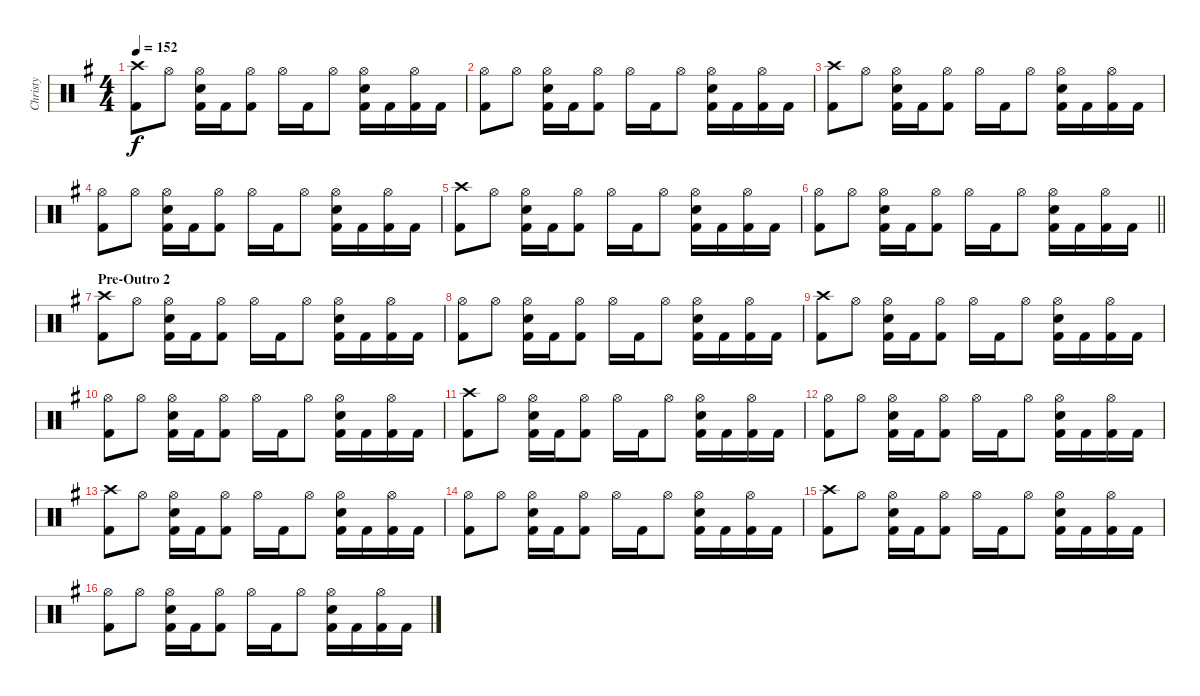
\track ("Christy" "Christy") {instrument percussion}
\staff {score}
\articulation defaults
\ts (4 4)
\tempo 152
\clef neutral
\ks g
("Crash high (hit)" "Kick (hit) 2").8{dy f} "Hi-Hat (open)".8 ("Hi-Hat (open)" "Snare (hit) 2" "Kick (hit) 2").16 "Kick (hit) 2".16 ("Hi-Hat (open)" "Kick (hit) 2").8 "Hi-Hat (open)".16 "Kick (hit) 2".16 "Hi-Hat (open)".8 ("Hi-Hat (open)" "Snare (hit) 2" "Kick (hit) 2").16 "Kick (hit) 2".16 ("Hi-Hat (open)" "Kick (hit) 2").16 "Kick (hit) 2".16 |
("Hi-Hat (open)" "Kick (hit) 2").8 "Hi-Hat (open)".8 ("Hi-Hat (open)" "Snare (hit) 2" "Kick (hit) 2").16 "Kick (hit) 2".16 ("Hi-Hat (open)" "Kick (hit) 2").8 "Hi-Hat (open)".16 "Kick (hit) 2".16 "Hi-Hat (open)".8 ("Hi-Hat (open)" "Snare (hit) 2" "Kick (hit) 2").16 "Kick (hit) 2".16 ("Hi-Hat (open)" "Kick (hit) 2").16 "Kick (hit) 2".16 |
("Crash high (hit)" "Kick (hit) 2").8 "Hi-Hat (open)".8 ("Hi-Hat (open)" "Snare (hit) 2" "Kick (hit) 2").16 "Kick (hit) 2".16 ("Hi-Hat (open)" "Kick (hit) 2").8 "Hi-Hat (open)".16 "Kick (hit) 2".16 "Hi-Hat (open)".8 ("Hi-Hat (open)" "Snare (hit) 2" "Kick (hit) 2").16 "Kick (hit) 2".16 ("Hi-Hat (open)" "Kick (hit) 2").16 "Kick (hit) 2".16 |
("Hi-Hat (open)" "Kick (hit) 2").8 "Hi-Hat (open)".8 ("Hi-Hat (open)" "Snare (hit) 2" "Kick (hit) 2").16 "Kick (hit) 2".16 ("Hi-Hat (open)" "Kick (hit) 2").8 "Hi-Hat (open)".16 "Kick (hit) 2".16 "Hi-Hat (open)".8 ("Hi-Hat (open)" "Snare (hit) 2" "Kick (hit) 2").16 "Kick (hit) 2".16 ("Hi-Hat (open)" "Kick (hit) 2").16 "Kick (hit) 2".16 |
("Crash high (hit)" "Kick (hit) 2").8 "Hi-Hat (open)".8 ("Hi-Hat (open)" "Snare (hit) 2" "Kick (hit) 2").16 "Kick (hit) 2".16 ("Hi-Hat (open)" "Kick (hit) 2").8 "Hi-Hat (open)".16 "Kick (hit) 2".16 "Hi-Hat (open)".8 ("Hi-Hat (open)" "Snare (hit) 2" "Kick (hit) 2").16 "Kick (hit) 2".16 ("Hi-Hat (open)" "Kick (hit) 2").16 "Kick (hit) 2".16 |
\barLineRight lightlight
("Hi-Hat (open)" "Kick (hit) 2").8 "Hi-Hat (open)".8 ("Hi-Hat (open)" "Snare (hit) 2" "Kick (hit) 2").16 "Kick (hit) 2".16 ("Hi-Hat (open)" "Kick (hit) 2").8 "Hi-Hat (open)".16 "Kick (hit) 2".16 "Hi-Hat (open)".8 ("Hi-Hat (open)" "Snare (hit) 2" "Kick (hit) 2").16 "Kick (hit) 2".16 ("Hi-Hat (open)" "Kick (hit) 2").16 "Kick (hit) 2".16 |
\section ("" "Pre-Outro 2")
("Crash high (hit)" "Kick (hit) 2").8 "Hi-Hat (open)".8 ("Hi-Hat (open)" "Snare (hit) 2" "Kick (hit) 2").16 "Kick (hit) 2".16 ("Hi-Hat (open)" "Kick (hit) 2").8 "Hi-Hat (open)".16 "Kick (hit) 2".16 "Hi-Hat (open)".8 ("Hi-Hat (open)" "Snare (hit) 2" "Kick (hit) 2").16 "Kick (hit) 2".16 ("Hi-Hat (open)" "Kick (hit) 2").16 "Kick (hit) 2".16 |
("Hi-Hat (open)" "Kick (hit) 2").8 "Hi-Hat (open)".8 ("Hi-Hat (open)" "Snare (hit) 2" "Kick (hit) 2").16 "Kick (hit) 2".16 ("Hi-Hat (open)" "Kick (hit) 2").8 "Hi-Hat (open)".16 "Kick (hit) 2".16 "Hi-Hat (open)".8 ("Hi-Hat (open)" "Snare (hit) 2" "Kick (hit) 2").16 "Kick (hit) 2".16 ("Hi-Hat (open)" "Kick (hit) 2").16 "Kick (hit) 2".16 |
("Crash high (hit)" "Kick (hit) 2").8 "Hi-Hat (open)".8 ("Hi-Hat (open)" "Snare (hit) 2" "Kick (hit) 2").16 "Kick (hit) 2".16 ("Hi-Hat (open)" "Kick (hit) 2").8 "Hi-Hat (open)".16 "Kick (hit) 2".16 "Hi-Hat (open)".8 ("Hi-Hat (open)" "Snare (hit) 2" "Kick (hit) 2").16 "Kick (hit) 2".16 ("Hi-Hat (open)" "Kick (hit) 2").16 "Kick (hit) 2".16 |
("Hi-Hat (open)" "Kick (hit) 2").8 "Hi-Hat (open)".8 ("Hi-Hat (open)" "Snare (hit) 2" "Kick (hit) 2").16 "Kick (hit) 2".16 ("Hi-Hat (open)" "Kick (hit) 2").8 "Hi-Hat (open)".16 "Kick (hit) 2".16 "Hi-Hat (open)".8 ("Hi-Hat (open)" "Snare (hit) 2" "Kick (hit) 2").16 "Kick (hit) 2".16 ("Hi-Hat (open)" "Kick (hit) 2").16 "Kick (hit) 2".16 |
("Crash high (hit)" "Kick (hit) 2").8 "Hi-Hat (open)".8 ("Hi-Hat (open)" "Snare (hit) 2" "Kick (hit) 2").16 "Kick (hit) 2".16 ("Hi-Hat (open)" "Kick (hit) 2").8 "Hi-Hat (open)".16 "Kick (hit) 2".16 "Hi-Hat (open)".8 ("Hi-Hat (open)" "Snare (hit) 2" "Kick (hit) 2").16 "Kick (hit) 2".16 ("Hi-Hat (open)" "Kick (hit) 2").16 "Kick (hit) 2".16 |
("Hi-Hat (open)" "Kick (hit) 2").8 "Hi-Hat (open)".8 ("Hi-Hat (open)" "Snare (hit) 2" "Kick (hit) 2").16 "Kick (hit) 2".16 ("Hi-Hat (open)" "Kick (hit) 2").8 "Hi-Hat (open)".16 "Kick (hit) 2".16 "Hi-Hat (open)".8 ("Hi-Hat (open)" "Snare (hit) 2" "Kick (hit) 2").16 "Kick (hit) 2".16 ("Hi-Hat (open)" "Kick (hit) 2").16 "Kick (hit) 2".16 |
("Crash high (hit)" "Kick (hit) 2").8 "Hi-Hat (open)".8 ("Hi-Hat (open)" "Snare (hit) 2" "Kick (hit) 2").16 "Kick (hit) 2".16 ("Hi-Hat (open)" "Kick (hit) 2").8 "Hi-Hat (open)".16 "Kick (hit) 2".16 "Hi-Hat (open)".8 ("Hi-Hat (open)" "Snare (hit) 2" "Kick (hit) 2").16 "Kick (hit) 2".16 ("Hi-Hat (open)" "Kick (hit) 2").16 "Kick (hit) 2".16 |
("Hi-Hat (open)" "Kick (hit) 2").8 "Hi-Hat (open)".8 ("Hi-Hat (open)" "Snare (hit) 2" "Kick (hit) 2").16 "Kick (hit) 2".16 ("Hi-Hat (open)" "Kick (hit) 2").8 "Hi-Hat (open)".16 "Kick (hit) 2".16 "Hi-Hat (open)".8 ("Hi-Hat (open)" "Snare (hit) 2" "Kick (hit) 2").16 "Kick (hit) 2".16 ("Hi-Hat (open)" "Kick (hit) 2").16 "Kick (hit) 2".16 |
("Crash high (hit)" "Kick (hit) 2").8 "Hi-Hat (open)".8 ("Hi-Hat (open)" "Snare (hit) 2" "Kick (hit) 2").16 "Kick (hit) 2".16 ("Hi-Hat (open)" "Kick (hit) 2").8 "Hi-Hat (open)".16 "Kick (hit) 2".16 "Hi-Hat (open)".8 ("Hi-Hat (open)" "Snare (hit) 2" "Kick (hit) 2").16 "Kick (hit) 2".16 ("Hi-Hat (open)" "Kick (hit) 2").16 "Kick (hit) 2".16 |
("Hi-Hat (open)" "Kick (hit) 2").8 "Hi-Hat (open)".8 ("Hi-Hat (open)" "Snare (hit) 2" "Kick (hit) 2").16 "Kick (hit) 2".16 ("Hi-Hat (open)" "Kick (hit) 2").8 "Hi-Hat (open)".16 "Kick (hit) 2".16 "Hi-Hat (open)".8 ("Hi-Hat (open)" "Snare (hit) 2" "Kick (hit) 2").16 "Kick (hit) 2".16 ("Hi-Hat (open)" "Kick (hit) 2").16 "Kick (hit) 2".16
